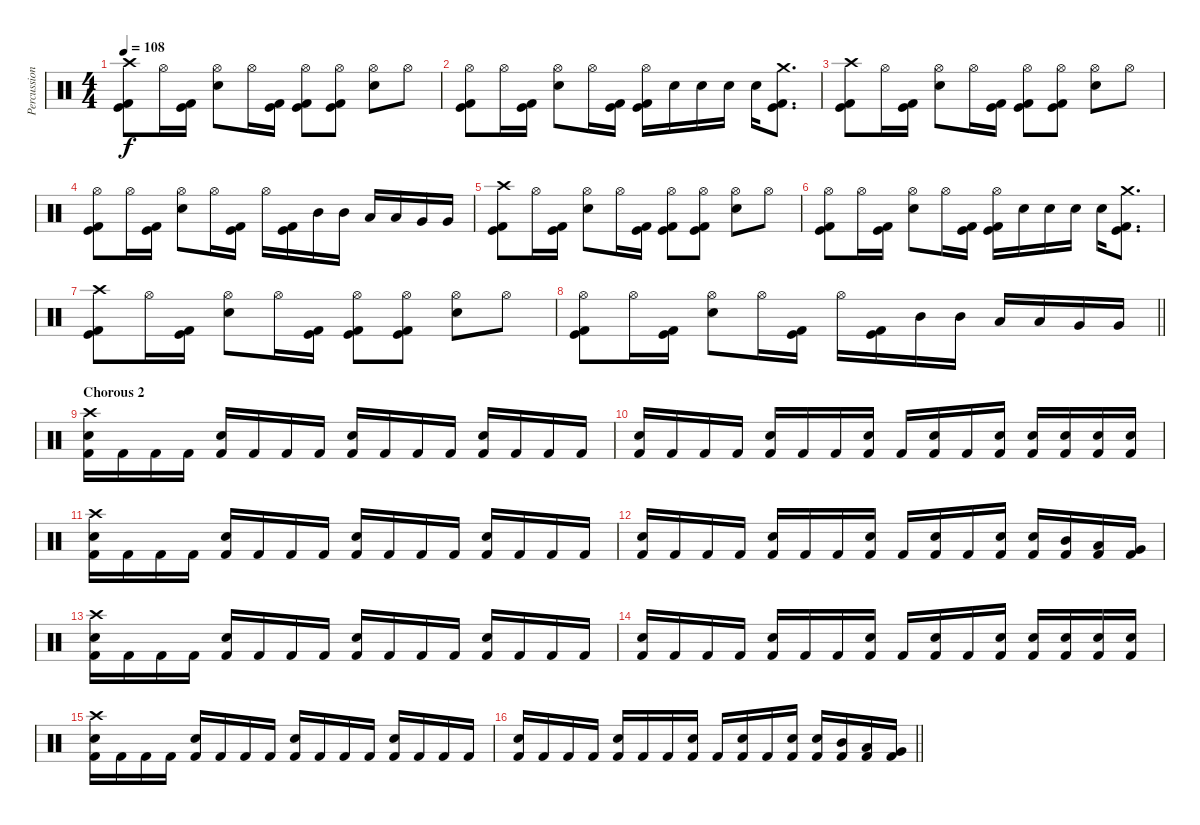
\track ("Percussion" "Percussion") {instrument percussion}
\staff {score}
\articulation defaults
\ts (4 4)
\tempo 108
\clef neutral
\ks c
("Crash high (hit)" "Kick (hit)" "Kick (hit) 2").8{dy f} "Hi-Hat (open)".16 ("Kick (hit)" "Kick (hit) 2").16 ("Hi-Hat (open)" "Electric Snare (hit)").8 "Hi-Hat (open)".16 ("Kick (hit)" "Kick (hit) 2").16 ("Hi-Hat (open)" "Kick (hit)" "Kick (hit) 2").8 ("Hi-Hat (open)" "Kick (hit)" "Kick (hit) 2").8 ("Hi-Hat (open)" "Electric Snare (hit)").8 "Hi-Hat (open)".8 |
("Hi-Hat (open)" "Kick (hit)" "Kick (hit) 2").8 "Hi-Hat (open)".16 ("Kick (hit)" "Kick (hit) 2").16 ("Hi-Hat (open)" "Electric Snare (hit)").8 "Hi-Hat (open)".16 ("Kick (hit)" "Kick (hit) 2").16 ("Hi-Hat (open)" "Kick (hit)" "Kick (hit) 2").16 "Electric Snare (hit)".16 "Electric Snare (hit)".16 "Electric Snare (hit)".16 "Electric Snare (hit)".16 ("Crash medium (hit)" "Kick (hit)" "Kick (hit) 2").8{d} |
("Crash high (hit)" "Kick (hit)" "Kick (hit) 2").8 "Hi-Hat (open)".16 ("Kick (hit)" "Kick (hit) 2").16 ("Hi-Hat (open)" "Electric Snare (hit)").8 "Hi-Hat (open)".16 ("Kick (hit)" "Kick (hit) 2").16 ("Hi-Hat (open)" "Kick (hit)" "Kick (hit) 2").8 ("Hi-Hat (open)" "Kick (hit)" "Kick (hit) 2").8 ("Hi-Hat (open)" "Electric Snare (hit)").8 "Hi-Hat (open)".8 |
("Hi-Hat (open)" "Kick (hit)" "Kick (hit) 2").8 "Hi-Hat (open)".16 ("Kick (hit)" "Kick (hit) 2").16 ("Hi-Hat (open)" "Electric Snare (hit)").8 "Hi-Hat (open)".16 ("Kick (hit)" "Kick (hit) 2").16 "Hi-Hat (open)".16 ("Kick (hit)" "Kick (hit) 2").16 "Mid Tom (hit)".16 "Mid Tom (hit)".16 "Low Tom (hit)".16 "Low Tom (hit)".16 "Very Low Tom (hit)".16 "Very Low Tom (hit)".16 |
("Crash high (hit)" "Kick (hit)" "Kick (hit) 2").8 "Hi-Hat (open)".16 ("Kick (hit)" "Kick (hit) 2").16 ("Hi-Hat (open)" "Electric Snare (hit)").8 "Hi-Hat (open)".16 ("Kick (hit)" "Kick (hit) 2").16 ("Hi-Hat (open)" "Kick (hit)" "Kick (hit) 2").8 ("Hi-Hat (open)" "Kick (hit)" "Kick (hit) 2").8 ("Hi-Hat (open)" "Electric Snare (hit)").8 "Hi-Hat (open)".8 |
("Hi-Hat (open)" "Kick (hit)" "Kick (hit) 2").8 "Hi-Hat (open)".16 ("Kick (hit)" "Kick (hit) 2").16 ("Hi-Hat (open)" "Electric Snare (hit)").8 "Hi-Hat (open)".16 ("Kick (hit)" "Kick (hit) 2").16 ("Hi-Hat (open)" "Kick (hit)" "Kick (hit) 2").16 "Electric Snare (hit)".16 "Electric Snare (hit)".16 "Electric Snare (hit)".16 "Electric Snare (hit)".16 ("Crash medium (hit)" "Kick (hit)" "Kick (hit) 2").8{d} |
("Crash high (hit)" "Kick (hit)" "Kick (hit) 2").8 "Hi-Hat (open)".16 ("Kick (hit)" "Kick (hit) 2").16 ("Hi-Hat (open)" "Electric Snare (hit)").8 "Hi-Hat (open)".16 ("Kick (hit)" "Kick (hit) 2").16 ("Hi-Hat (open)" "Kick (hit)" "Kick (hit) 2").8 ("Hi-Hat (open)" "Kick (hit)" "Kick (hit) 2").8 ("Hi-Hat (open)" "Electric Snare (hit)").8 "Hi-Hat (open)".8 |
\barLineRight lightlight
("Hi-Hat (open)" "Kick (hit)" "Kick (hit) 2").8 "Hi-Hat (open)".16 ("Kick (hit)" "Kick (hit) 2").16 ("Hi-Hat (open)" "Electric Snare (hit)").8 "Hi-Hat (open)".16 ("Kick (hit)" "Kick (hit) 2").16 "Hi-Hat (open)".16 ("Kick (hit)" "Kick (hit) 2").16 "Mid Tom (hit)".16 "Mid Tom (hit)".16 "Low Tom (hit)".16 "Low Tom (hit)".16 "Very Low Tom (hit)".16 "Very Low Tom (hit)".16 |
\section ("" "Chorous 2")
("Crash high (hit)" "Electric Snare (hit)" "Kick (hit) 2").16 "Kick (hit) 2".16 "Kick (hit) 2".16 "Kick (hit) 2".16 ("Electric Snare (hit)" "Kick (hit) 2").16 "Kick (hit) 2".16 "Kick (hit) 2".16 "Kick (hit) 2".16 ("Electric Snare (hit)" "Kick (hit) 2").16 "Kick (hit) 2".16 "Kick (hit) 2".16 "Kick (hit) 2".16 ("Electric Snare (hit)" "Kick (hit) 2").16 "Kick (hit) 2".16 "Kick (hit) 2".16 "Kick (hit) 2".16 |
("Electric Snare (hit)" "Kick (hit) 2").16 "Kick (hit) 2".16 "Kick (hit) 2".16 "Kick (hit) 2".16 ("Electric Snare (hit)" "Kick (hit) 2").16 "Kick (hit) 2".16 "Kick (hit) 2".16 ("Electric Snare (hit)" "Kick (hit) 2").16 "Kick (hit) 2".16 ("Electric Snare (hit)" "Kick (hit) 2").16 "Kick (hit) 2".16 ("Electric Snare (hit)" "Kick (hit) 2").16 ("Electric Snare (hit)" "Kick (hit) 2").16 ("Electric Snare (hit)" "Kick (hit) 2").16 ("Electric Snare (hit)" "Kick (hit) 2").16 ("Electric Snare (hit)" "Kick (hit) 2").16 |
("Crash high (hit)" "Electric Snare (hit)" "Kick (hit) 2").16 "Kick (hit) 2".16 "Kick (hit) 2".16 "Kick (hit) 2".16 ("Electric Snare (hit)" "Kick (hit) 2").16 "Kick (hit) 2".16 "Kick (hit) 2".16 "Kick (hit) 2".16 ("Electric Snare (hit)" "Kick (hit) 2").16 "Kick (hit) 2".16 "Kick (hit) 2".16 "Kick (hit) 2".16 ("Electric Snare (hit)" "Kick (hit) 2").16 "Kick (hit) 2".16 "Kick (hit) 2".16 "Kick (hit) 2".16 |
("Electric Snare (hit)" "Kick (hit) 2").16 "Kick (hit) 2".16 "Kick (hit) 2".16 "Kick (hit) 2".16 ("Electric Snare (hit)" "Kick (hit) 2").16 "Kick (hit) 2".16 "Kick (hit) 2".16 ("Electric Snare (hit)" "Kick (hit) 2").16 "Kick (hit) 2".16 ("Electric Snare (hit)" "Kick (hit) 2").16 "Kick (hit) 2".16 ("Electric Snare (hit)" "Kick (hit) 2").16 ("Electric Snare (hit)" "Kick (hit) 2").16 ("Kick (hit) 2" "Mid Tom (hit)").16 ("Kick (hit) 2" "Low Tom (hit)").16 ("Kick (hit) 2" "Very Low Tom (hit)").16 |
("Crash high (hit)" "Electric Snare (hit)" "Kick (hit) 2").16 "Kick (hit) 2".16 "Kick (hit) 2".16 "Kick (hit) 2".16 ("Electric Snare (hit)" "Kick (hit) 2").16 "Kick (hit) 2".16 "Kick (hit) 2".16 "Kick (hit) 2".16 ("Electric Snare (hit)" "Kick (hit) 2").16 "Kick (hit) 2".16 "Kick (hit) 2".16 "Kick (hit) 2".16 ("Electric Snare (hit)" "Kick (hit) 2").16 "Kick (hit) 2".16 "Kick (hit) 2".16 "Kick (hit) 2".16 |
("Electric Snare (hit)" "Kick (hit) 2").16 "Kick (hit) 2".16 "Kick (hit) 2".16 "Kick (hit) 2".16 ("Electric Snare (hit)" "Kick (hit) 2").16 "Kick (hit) 2".16 "Kick (hit) 2".16 ("Electric Snare (hit)" "Kick (hit) 2").16 "Kick (hit) 2".16 ("Electric Snare (hit)" "Kick (hit) 2").16 "Kick (hit) 2".16 ("Electric Snare (hit)" "Kick (hit) 2").16 ("Electric Snare (hit)" "Kick (hit) 2").16 ("Electric Snare (hit)" "Kick (hit) 2").16 ("Electric Snare (hit)" "Kick (hit) 2").16 ("Electric Snare (hit)" "Kick (hit) 2").16 |
("Crash high (hit)" "Electric Snare (hit)" "Kick (hit) 2").16 "Kick (hit) 2".16 "Kick (hit) 2".16 "Kick (hit) 2".16 ("Electric Snare (hit)" "Kick (hit) 2").16 "Kick (hit) 2".16 "Kick (hit) 2".16 "Kick (hit) 2".16 ("Electric Snare (hit)" "Kick (hit) 2").16 "Kick (hit) 2".16 "Kick (hit) 2".16 "Kick (hit) 2".16 ("Electric Snare (hit)" "Kick (hit) 2").16 "Kick (hit) 2".16 "Kick (hit) 2".16 "Kick (hit) 2".16 |
\barLineRight lightlight
("Electric Snare (hit)" "Kick (hit) 2").16 "Kick (hit) 2".16 "Kick (hit) 2".16 "Kick (hit) 2".16 ("Electric Snare (hit)" "Kick (hit) 2").16 "Kick (hit) 2".16 "Kick (hit) 2".16 ("Electric Snare (hit)" "Kick (hit) 2").16 "Kick (hit) 2".16 ("Electric Snare (hit)" "Kick (hit) 2").16 "Kick (hit) 2".16 ("Electric Snare (hit)" "Kick (hit) 2").16 ("Electric Snare (hit)" "Kick (hit) 2").16 ("Kick (hit) 2" "Mid Tom (hit)").16 ("Kick (hit) 2" "Low Tom (hit)").16 ("Kick (hit) 2" "Very Low Tom (hit)").16
